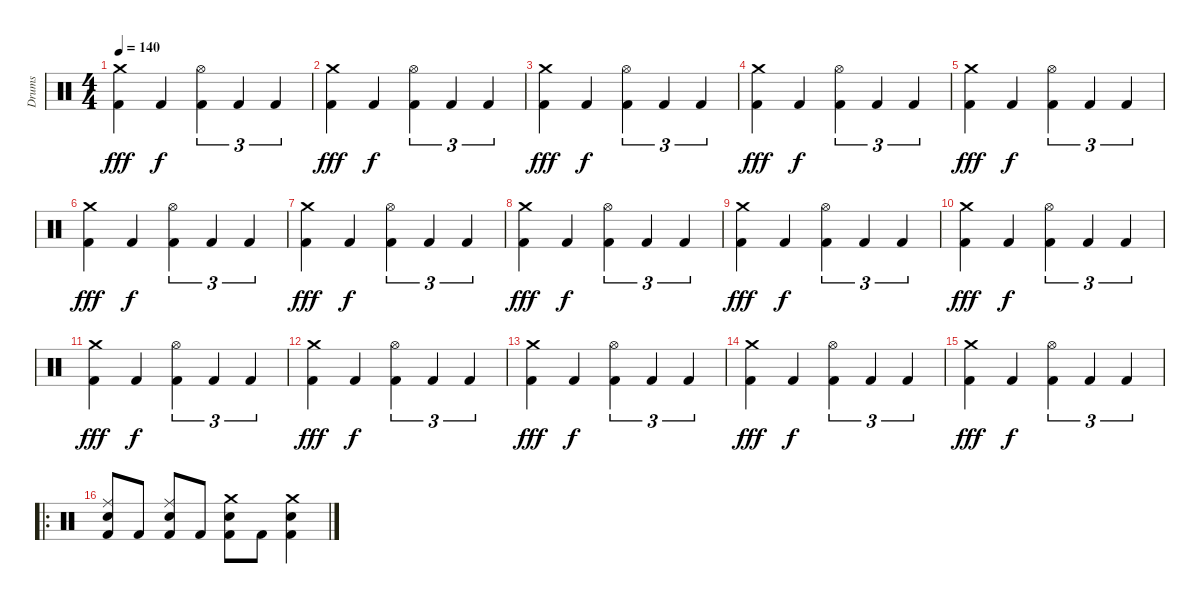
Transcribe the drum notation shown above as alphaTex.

\track ("Drums" "Drums") {instrument percussion}
\staff {score}
\articulation defaults
\ts (4 4)
\tempo 140
\clef neutral
\ks c
("Crash medium (hit)" "Kick (hit) 2").4{dy fff} "Kick (hit) 2".4{dy f} ("Hi-Hat (open)" "Kick (hit) 2").4{tu (3 2)} "Kick (hit) 2".4{tu (3 2)} "Kick (hit) 2".4{tu (3 2)} |
("Crash medium (hit)" "Kick (hit) 2").4{dy fff} "Kick (hit) 2".4{dy f} ("Hi-Hat (open)" "Kick (hit) 2").4{tu (3 2)} "Kick (hit) 2".4{tu (3 2)} "Kick (hit) 2".4{tu (3 2)} |
("Crash medium (hit)" "Kick (hit) 2").4{dy fff} "Kick (hit) 2".4{dy f} ("Hi-Hat (open)" "Kick (hit) 2").4{tu (3 2)} "Kick (hit) 2".4{tu (3 2)} "Kick (hit) 2".4{tu (3 2)} |
("Crash medium (hit)" "Kick (hit) 2").4{dy fff} "Kick (hit) 2".4{dy f} ("Hi-Hat (open)" "Kick (hit) 2").4{tu (3 2)} "Kick (hit) 2".4{tu (3 2)} "Kick (hit) 2".4{tu (3 2)} |
("Crash medium (hit)" "Kick (hit) 2").4{dy fff} "Kick (hit) 2".4{dy f} ("Hi-Hat (open)" "Kick (hit) 2").4{tu (3 2)} "Kick (hit) 2".4{tu (3 2)} "Kick (hit) 2".4{tu (3 2)} |
("Crash medium (hit)" "Kick (hit) 2").4{dy fff} "Kick (hit) 2".4{dy f} ("Hi-Hat (open)" "Kick (hit) 2").4{tu (3 2)} "Kick (hit) 2".4{tu (3 2)} "Kick (hit) 2".4{tu (3 2)} |
("Crash medium (hit)" "Kick (hit) 2").4{dy fff} "Kick (hit) 2".4{dy f} ("Hi-Hat (open)" "Kick (hit) 2").4{tu (3 2)} "Kick (hit) 2".4{tu (3 2)} "Kick (hit) 2".4{tu (3 2)} |
("Crash medium (hit)" "Kick (hit) 2").4{dy fff} "Kick (hit) 2".4{dy f} ("Hi-Hat (open)" "Kick (hit) 2").4{tu (3 2)} "Kick (hit) 2".4{tu (3 2)} "Kick (hit) 2".4{tu (3 2)} |
("Crash medium (hit)" "Kick (hit) 2").4{dy fff} "Kick (hit) 2".4{dy f} ("Hi-Hat (open)" "Kick (hit) 2").4{tu (3 2)} "Kick (hit) 2".4{tu (3 2)} "Kick (hit) 2".4{tu (3 2)} |
("Crash medium (hit)" "Kick (hit) 2").4{dy fff} "Kick (hit) 2".4{dy f} ("Hi-Hat (open)" "Kick (hit) 2").4{tu (3 2)} "Kick (hit) 2".4{tu (3 2)} "Kick (hit) 2".4{tu (3 2)} |
("Crash medium (hit)" "Kick (hit) 2").4{dy fff} "Kick (hit) 2".4{dy f} ("Hi-Hat (open)" "Kick (hit) 2").4{tu (3 2)} "Kick (hit) 2".4{tu (3 2)} "Kick (hit) 2".4{tu (3 2)} |
("Crash medium (hit)" "Kick (hit) 2").4{dy fff} "Kick (hit) 2".4{dy f} ("Hi-Hat (open)" "Kick (hit) 2").4{tu (3 2)} "Kick (hit) 2".4{tu (3 2)} "Kick (hit) 2".4{tu (3 2)} |
("Crash medium (hit)" "Kick (hit) 2").4{dy fff} "Kick (hit) 2".4{dy f} ("Hi-Hat (open)" "Kick (hit) 2").4{tu (3 2)} "Kick (hit) 2".4{tu (3 2)} "Kick (hit) 2".4{tu (3 2)} |
("Crash medium (hit)" "Kick (hit) 2").4{dy fff} "Kick (hit) 2".4{dy f} ("Hi-Hat (open)" "Kick (hit) 2").4{tu (3 2)} "Kick (hit) 2".4{tu (3 2)} "Kick (hit) 2".4{tu (3 2)} |
("Crash medium (hit)" "Kick (hit) 2").4{dy fff} "Kick (hit) 2".4{dy f} ("Hi-Hat (open)" "Kick (hit) 2").4{tu (3 2)} "Kick (hit) 2".4{tu (3 2)} "Kick (hit) 2".4{tu (3 2)} |
\ro
("Ride (middle)" "Snare (hit) 2" "Kick (hit) 2").8 "Kick (hit) 2".8 ("Ride (middle)" "Snare (hit) 2" "Kick (hit) 2").8 "Kick (hit) 2".8 ("Crash medium (hit)" "Snare (hit) 2" "Kick (hit) 2").8 "Kick (hit) 2".8 ("Crash medium (hit)" "Snare (hit) 2" "Kick (hit) 2").4
